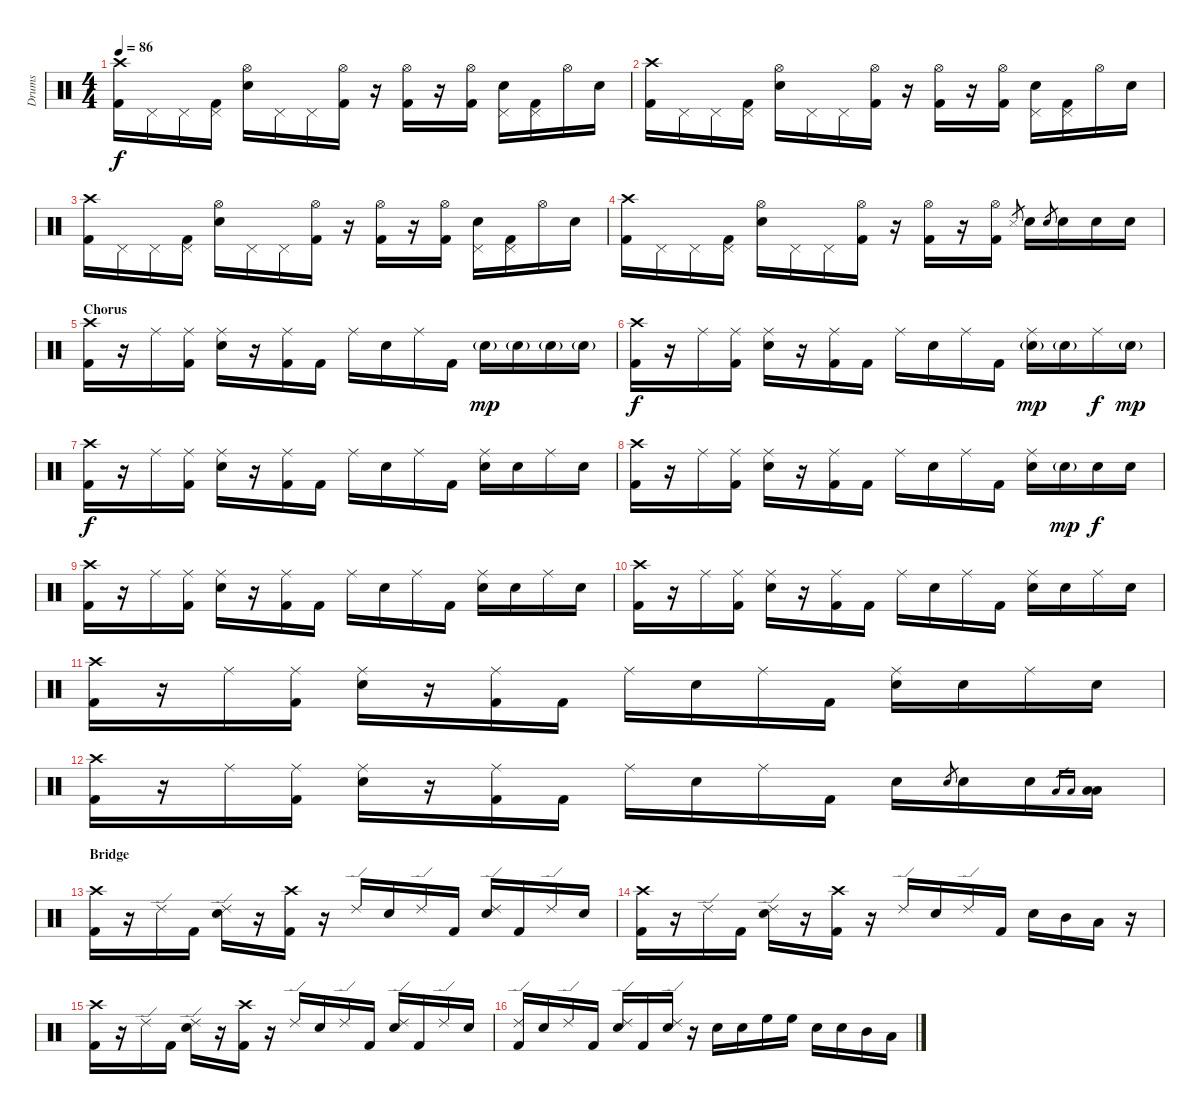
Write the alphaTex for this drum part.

\track ("Drums" "Drums") {instrument percussion}
\staff {score}
\articulation defaults
\ts (4 4)
\tempo 86
\clef neutral
\ks c
("Crash high (hit)" "Kick (hit) 2").16{dy f} "Pedal Hi-Hat (hit)".16 "Pedal Hi-Hat (hit)".16 ("Pedal Hi-Hat (hit)" "Kick (hit) 2").16 ("Hi-Hat (open)" "Snare (hit) 2").16 "Pedal Hi-Hat (hit)".16 "Pedal Hi-Hat (hit)".16 ("Hi-Hat (open)" "Kick (hit) 2").16 r.16 ("Hi-Hat (open)" "Kick (hit) 2").16 r.16 ("Hi-Hat (open)" "Kick (hit) 2").16 ("Pedal Hi-Hat (hit)" "Snare (hit) 2").16 ("Pedal Hi-Hat (hit)" "Kick (hit) 2").16 "Hi-Hat (open)".16 "Snare (hit) 2".16 |
("Crash high (hit)" "Kick (hit) 2").16 "Pedal Hi-Hat (hit)".16 "Pedal Hi-Hat (hit)".16 ("Pedal Hi-Hat (hit)" "Kick (hit) 2").16 ("Hi-Hat (open)" "Snare (hit) 2").16 "Pedal Hi-Hat (hit)".16 "Pedal Hi-Hat (hit)".16 ("Hi-Hat (open)" "Kick (hit) 2").16 r.16 ("Hi-Hat (open)" "Kick (hit) 2").16 r.16 ("Hi-Hat (open)" "Kick (hit) 2").16 ("Pedal Hi-Hat (hit)" "Snare (hit) 2").16 ("Pedal Hi-Hat (hit)" "Kick (hit) 2").16 "Hi-Hat (open)".16 "Snare (hit) 2".16 |
("Crash high (hit)" "Kick (hit) 2").16 "Pedal Hi-Hat (hit)".16 "Pedal Hi-Hat (hit)".16 ("Pedal Hi-Hat (hit)" "Kick (hit) 2").16 ("Hi-Hat (open)" "Snare (hit) 2").16 "Pedal Hi-Hat (hit)".16 "Pedal Hi-Hat (hit)".16 ("Hi-Hat (open)" "Kick (hit) 2").16 r.16 ("Hi-Hat (open)" "Kick (hit) 2").16 r.16 ("Hi-Hat (open)" "Kick (hit) 2").16 ("Pedal Hi-Hat (hit)" "Snare (hit) 2").16 ("Pedal Hi-Hat (hit)" "Kick (hit) 2").16 "Hi-Hat (open)".16 "Snare (hit) 2".16 |
("Crash high (hit)" "Kick (hit) 2").16 "Pedal Hi-Hat (hit)".16 "Pedal Hi-Hat (hit)".16 ("Pedal Hi-Hat (hit)" "Kick (hit) 2").16 ("Hi-Hat (open)" "Snare (hit) 2").16 "Pedal Hi-Hat (hit)".16 "Pedal Hi-Hat (hit)".16 ("Hi-Hat (open)" "Kick (hit) 2").16 r.16 ("Hi-Hat (open)" "Kick (hit) 2").16 r.16 ("Hi-Hat (open)" "Kick (hit) 2").16 "Snare (side stick) 3".8{gr} "Snare (hit) 2".16 "Snare (hit) 2".8{gr} "Snare (hit) 2".16 "Snare (hit) 2".16 "Snare (hit) 2".16 |
\section ("" "Chorus")
("Crash high (hit)" "Kick (hit) 2").16 r.16 "Ride (middle)".16 ("Ride (middle)" "Kick (hit) 2").16 ("Ride (middle)" "Snare (hit) 2").16 r.16 ("Ride (middle)" "Kick (hit) 2").16 "Kick (hit) 2".16 "Ride (middle)".16 "Snare (hit) 2".16 "Ride (middle)".16 "Kick (hit) 2".16 "Snare (hit) 2"{g}.16{dy mp} "Snare (hit) 2"{g}.16 "Snare (hit) 2"{g}.16 "Snare (hit) 2"{g}.16 |
("Crash high (hit)" "Kick (hit) 2").16{dy f} r.16 "Ride (middle)".16 ("Ride (middle)" "Kick (hit) 2").16 ("Ride (middle)" "Snare (hit) 2").16 r.16 ("Ride (middle)" "Kick (hit) 2").16 "Kick (hit) 2".16 "Ride (middle)".16 "Snare (hit) 2".16 "Ride (middle)".16 "Kick (hit) 2".16 ("Ride (middle)" "Snare (hit) 2"{g}).16{dy mp} "Snare (hit) 2"{g}.16 "Ride (middle)".16{dy f} "Snare (hit) 2"{g}.16{dy mp} |
("Crash high (hit)" "Kick (hit) 2").16{dy f} r.16 "Ride (middle)".16 ("Ride (middle)" "Kick (hit) 2").16 ("Ride (middle)" "Snare (hit) 2").16 r.16 ("Ride (middle)" "Kick (hit) 2").16 "Kick (hit) 2".16 "Ride (middle)".16 "Snare (hit) 2".16 "Ride (middle)".16 "Kick (hit) 2".16 ("Ride (middle)" "Snare (hit) 2").16 "Snare (hit) 2".16 "Ride (middle)".16 "Snare (hit) 2".16 |
("Crash high (hit)" "Kick (hit) 2").16 r.16 "Ride (middle)".16 ("Ride (middle)" "Kick (hit) 2").16 ("Ride (middle)" "Snare (hit) 2").16 r.16 ("Ride (middle)" "Kick (hit) 2").16 "Kick (hit) 2".16 "Ride (middle)".16 "Snare (hit) 2".16 "Ride (middle)".16 "Kick (hit) 2".16 ("Ride (middle)" "Snare (hit) 2").16 "Snare (hit) 2"{g}.16{dy mp} "Snare (hit) 2".16{dy f} "Snare (hit) 2".16 |
("Crash high (hit)" "Kick (hit) 2").16 r.16 "Ride (middle)".16 ("Ride (middle)" "Kick (hit) 2").16 ("Ride (middle)" "Snare (hit) 2").16 r.16 ("Ride (middle)" "Kick (hit) 2").16 "Kick (hit) 2".16 "Ride (middle)".16 "Snare (hit) 2".16 "Ride (middle)".16 "Kick (hit) 2".16 ("Ride (middle)" "Snare (hit) 2").16 "Snare (hit) 2".16 "Ride (middle)".16 "Snare (hit) 2".16 |
("Crash high (hit)" "Kick (hit) 2").16 r.16 "Ride (middle)".16 ("Ride (middle)" "Kick (hit) 2").16 ("Ride (middle)" "Snare (hit) 2").16 r.16 ("Ride (middle)" "Kick (hit) 2").16 "Kick (hit) 2".16 "Ride (middle)".16 "Snare (hit) 2".16 "Ride (middle)".16 "Kick (hit) 2".16 ("Ride (middle)" "Snare (hit) 2").16 "Snare (hit) 2".16 "Ride (middle)".16 "Snare (hit) 2".16 |
("Crash high (hit)" "Kick (hit) 2").16 r.16 "Ride (middle)".16 ("Ride (middle)" "Kick (hit) 2").16 ("Ride (middle)" "Snare (hit) 2").16 r.16 ("Ride (middle)" "Kick (hit) 2").16 "Kick (hit) 2".16 "Ride (middle)".16 "Snare (hit) 2".16 "Ride (middle)".16 "Kick (hit) 2".16 ("Ride (middle)" "Snare (hit) 2").16 "Snare (hit) 2".16 "Ride (middle)".16 "Snare (hit) 2".16 |
("Crash high (hit)" "Kick (hit) 2").16 r.16 "Ride (middle)".16 ("Ride (middle)" "Kick (hit) 2").16 ("Ride (middle)" "Snare (hit) 2").16 r.16 ("Ride (middle)" "Kick (hit) 2").16 "Kick (hit) 2".16 "Ride (middle)".16 "Snare (hit) 2".16 "Ride (middle)".16 "Kick (hit) 2".16 "Snare (hit) 2".16 "Snare (hit) 2".8{gr} "Snare (hit) 2".16 "Snare (hit) 2".16 "Low Floor Tom (hit)".16{gr} "Low Floor Tom (hit)".16{gr} ("Low Floor Tom (hit)" "Low Floor Tom (hit)").16 |
\section ("" "Bridge")
("Crash high (hit)" "Kick (hit) 2").16 r.16 "Ride (edge) 2".16 "Kick (hit) 2".16 ("Ride (edge) 2" "Snare (hit) 2").16 r.16 ("Crash high (hit)" "Kick (hit) 2").16 r.16 "Ride (edge) 2".16 "Snare (hit) 2".16 "Ride (edge) 2".16 "Kick (hit) 2".16 ("Ride (edge) 2" "Snare (hit) 2").16 "Kick (hit) 2".16 "Ride (edge) 2".16 "Snare (hit) 2".16 |
("Crash high (hit)" "Kick (hit) 2").16 r.16 "Ride (edge) 2".16 "Kick (hit) 2".16 ("Ride (edge) 2" "Snare (hit) 2").16 r.16 ("Crash high (hit)" "Kick (hit) 2").16 r.16 "Ride (edge) 2".16 "Snare (hit) 2".16 "Ride (edge) 2".16 "Kick (hit) 2".16 "Snare (hit) 2".16 "Mid Tom (hit)".16 "Low Floor Tom (hit)".16 r.16 |
("Crash high (hit)" "Kick (hit) 2").16 r.16 "Ride (edge) 2".16 "Kick (hit) 2".16 ("Ride (edge) 2" "Snare (hit) 2").16 r.16 ("Crash high (hit)" "Kick (hit) 2").16 r.16 "Ride (edge) 2".16 "Snare (hit) 2".16 "Ride (edge) 2".16 "Kick (hit) 2".16 ("Ride (edge) 2" "Snare (hit) 2").16 "Kick (hit) 2".16 "Ride (edge) 2".16 "Snare (hit) 2".16 |
("Ride (edge) 2" "Kick (hit) 2").16 "Snare (hit) 2".16 "Ride (edge) 2".16 "Kick (hit) 2".16 ("Ride (edge) 2" "Snare (hit) 2").16 "Kick (hit) 2".16 ("Ride (edge) 2" "Snare (hit) 2").16 r.16 "Snare (hit) 2".16 "Snare (hit) 2".16 "High Floor Tom (hit)".16 "High Floor Tom (hit)".16 "Snare (hit) 2".16 "Snare (hit) 2".16 "Mid Tom (hit)".16 "Low Floor Tom (hit)".16
